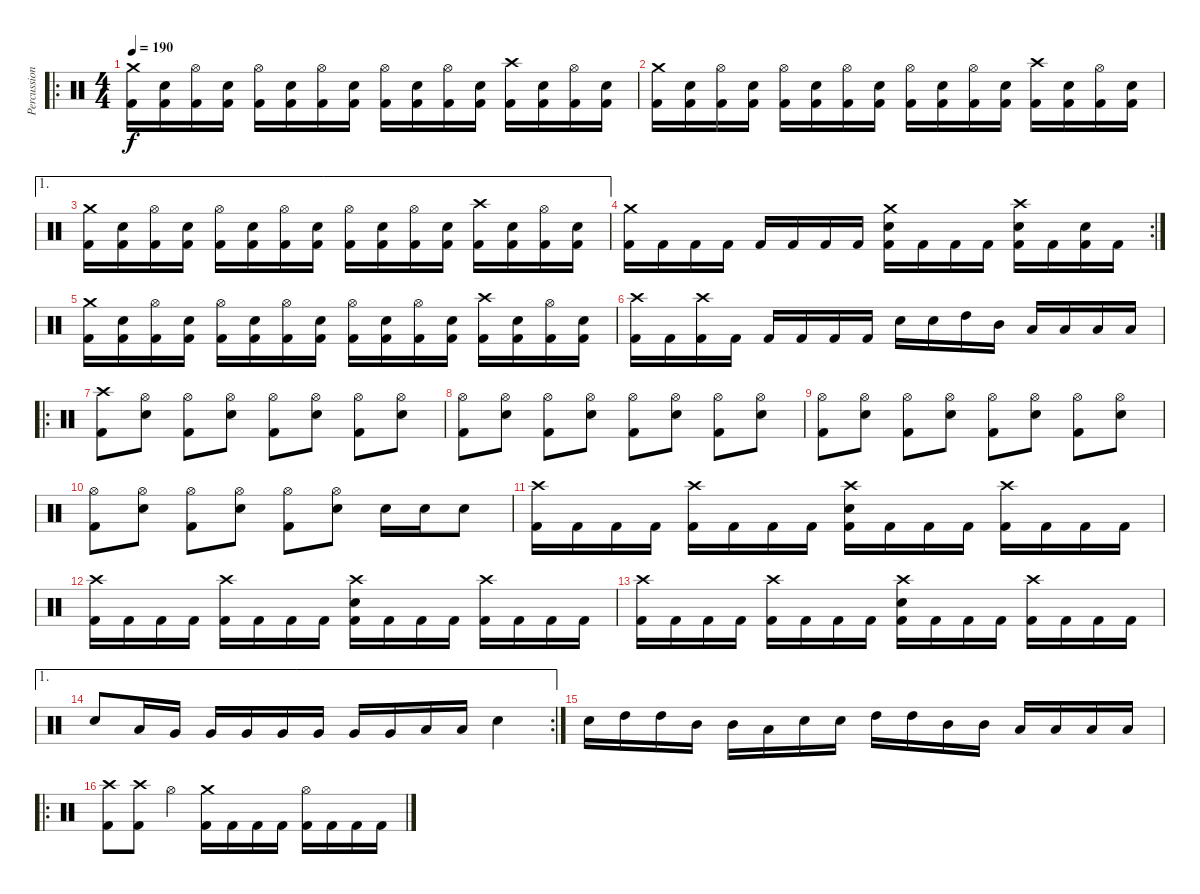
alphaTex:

\track ("Percussion" "Percussion") {instrument percussion}
\staff {score}
\articulation defaults
\ro
\ts (4 4)
\tempo 190
\clef neutral
\ks c
("Crash medium (hit)" "Kick (hit) 2").16{dy f} ("Snare (hit) 2" "Kick (hit) 2").16 ("Hi-Hat (open)" "Kick (hit) 2").16 ("Snare (hit) 2" "Kick (hit) 2").16 ("Hi-Hat (open)" "Kick (hit) 2").16 ("Snare (hit) 2" "Kick (hit) 2").16 ("Hi-Hat (open)" "Kick (hit) 2").16 ("Snare (hit) 2" "Kick (hit) 2").16 ("Hi-Hat (open)" "Kick (hit) 2").16 ("Snare (hit) 2" "Kick (hit) 2").16 ("Hi-Hat (open)" "Kick (hit) 2").16 ("Snare (hit) 2" "Kick (hit) 2").16 ("Crash high (hit)" "Kick (hit) 2").16 ("Snare (hit) 2" "Kick (hit) 2").16 ("Hi-Hat (open)" "Kick (hit) 2").16 ("Snare (hit) 2" "Kick (hit) 2").16 |
("Crash medium (hit)" "Kick (hit) 2").16 ("Snare (hit) 2" "Kick (hit) 2").16 ("Hi-Hat (open)" "Kick (hit) 2").16 ("Snare (hit) 2" "Kick (hit) 2").16 ("Hi-Hat (open)" "Kick (hit) 2").16 ("Snare (hit) 2" "Kick (hit) 2").16 ("Hi-Hat (open)" "Kick (hit) 2").16 ("Snare (hit) 2" "Kick (hit) 2").16 ("Hi-Hat (open)" "Kick (hit) 2").16 ("Snare (hit) 2" "Kick (hit) 2").16 ("Hi-Hat (open)" "Kick (hit) 2").16 ("Snare (hit) 2" "Kick (hit) 2").16 ("Crash high (hit)" "Kick (hit) 2").16 ("Snare (hit) 2" "Kick (hit) 2").16 ("Hi-Hat (open)" "Kick (hit) 2").16 ("Snare (hit) 2" "Kick (hit) 2").16 |
\ae 1
("Crash medium (hit)" "Kick (hit) 2").16 ("Snare (hit) 2" "Kick (hit) 2").16 ("Hi-Hat (open)" "Kick (hit) 2").16 ("Snare (hit) 2" "Kick (hit) 2").16 ("Hi-Hat (open)" "Kick (hit) 2").16 ("Snare (hit) 2" "Kick (hit) 2").16 ("Hi-Hat (open)" "Kick (hit) 2").16 ("Snare (hit) 2" "Kick (hit) 2").16 ("Hi-Hat (open)" "Kick (hit) 2").16 ("Snare (hit) 2" "Kick (hit) 2").16 ("Hi-Hat (open)" "Kick (hit) 2").16 ("Snare (hit) 2" "Kick (hit) 2").16 ("Crash high (hit)" "Kick (hit) 2").16 ("Snare (hit) 2" "Kick (hit) 2").16 ("Hi-Hat (open)" "Kick (hit) 2").16 ("Snare (hit) 2" "Kick (hit) 2").16 |
\rc 2
("Crash medium (hit)" "Kick (hit) 2").16 "Kick (hit) 2".16 "Kick (hit) 2".16 "Kick (hit) 2".16 "Kick (hit) 2".16 "Kick (hit) 2".16 "Kick (hit) 2".16 "Kick (hit) 2".16 ("Crash medium (hit)" "Snare (hit) 2" "Kick (hit) 2").16 "Kick (hit) 2".16 "Kick (hit) 2".16 "Kick (hit) 2".16 ("Crash high (hit)" "Snare (hit) 2" "Kick (hit) 2").16 "Kick (hit) 2".16 ("Snare (hit) 2" "Kick (hit) 2").16 "Kick (hit) 2".16 |
("Crash medium (hit)" "Kick (hit) 2").16 ("Snare (hit) 2" "Kick (hit) 2").16 ("Hi-Hat (open)" "Kick (hit) 2").16 ("Snare (hit) 2" "Kick (hit) 2").16 ("Hi-Hat (open)" "Kick (hit) 2").16 ("Snare (hit) 2" "Kick (hit) 2").16 ("Hi-Hat (open)" "Kick (hit) 2").16 ("Snare (hit) 2" "Kick (hit) 2").16 ("Hi-Hat (open)" "Kick (hit) 2").16 ("Snare (hit) 2" "Kick (hit) 2").16 ("Hi-Hat (open)" "Kick (hit) 2").16 ("Snare (hit) 2" "Kick (hit) 2").16 ("Crash high (hit)" "Kick (hit) 2").16 ("Snare (hit) 2" "Kick (hit) 2").16 ("Hi-Hat (open)" "Kick (hit) 2").16 ("Snare (hit) 2" "Kick (hit) 2").16 |
("Crash high (hit)" "Kick (hit) 2").16 "Kick (hit) 2".16 ("Crash high (hit)" "Kick (hit) 2").16 "Kick (hit) 2".16 "Kick (hit) 2".16 "Kick (hit) 2".16 "Kick (hit) 2".16 "Kick (hit) 2".16 "Snare (hit) 2".16 "Snare (hit) 2".16 "High Tom (hit)".16 "Mid Tom (hit)".16 "Low Tom (hit)".16 "Low Tom (hit)".16 "Low Tom (hit)".16 "Low Tom (hit)".16 |
\ro
("Crash high (hit)" "Kick (hit) 2").8 ("Hi-Hat (open)" "Snare (hit) 2").8 ("Hi-Hat (open)" "Kick (hit) 2").8 ("Hi-Hat (open)" "Snare (hit) 2").8 ("Hi-Hat (open)" "Kick (hit) 2").8 ("Hi-Hat (open)" "Snare (hit) 2").8 ("Hi-Hat (open)" "Kick (hit) 2").8 ("Hi-Hat (open)" "Snare (hit) 2").8 |
("Hi-Hat (open)" "Kick (hit) 2").8 ("Hi-Hat (open)" "Snare (hit) 2").8 ("Hi-Hat (open)" "Kick (hit) 2").8 ("Hi-Hat (open)" "Snare (hit) 2").8 ("Hi-Hat (open)" "Kick (hit) 2").8 ("Hi-Hat (open)" "Snare (hit) 2").8 ("Hi-Hat (open)" "Kick (hit) 2").8 ("Hi-Hat (open)" "Snare (hit) 2").8 |
("Hi-Hat (open)" "Kick (hit) 2").8 ("Hi-Hat (open)" "Snare (hit) 2").8 ("Hi-Hat (open)" "Kick (hit) 2").8 ("Hi-Hat (open)" "Snare (hit) 2").8 ("Hi-Hat (open)" "Kick (hit) 2").8 ("Hi-Hat (open)" "Snare (hit) 2").8 ("Hi-Hat (open)" "Kick (hit) 2").8 ("Hi-Hat (open)" "Snare (hit) 2").8 |
("Hi-Hat (open)" "Kick (hit) 2").8 ("Hi-Hat (open)" "Snare (hit) 2").8 ("Hi-Hat (open)" "Kick (hit) 2").8 ("Hi-Hat (open)" "Snare (hit) 2").8 ("Hi-Hat (open)" "Kick (hit) 2").8 ("Hi-Hat (open)" "Snare (hit) 2").8 "Snare (hit) 2".16 "Snare (hit) 2".16 "Snare (hit) 2".8 |
("Crash high (hit)" "Kick (hit) 2").16 "Kick (hit) 2".16 "Kick (hit) 2".16 "Kick (hit) 2".16 ("Crash high (hit)" "Kick (hit) 2").16 "Kick (hit) 2".16 "Kick (hit) 2".16 "Kick (hit) 2".16 ("Crash high (hit)" "Snare (hit) 2" "Kick (hit) 2").16 "Kick (hit) 2".16 "Kick (hit) 2".16 "Kick (hit) 2".16 ("Crash high (hit)" "Kick (hit) 2").16 "Kick (hit) 2".16 "Kick (hit) 2".16 "Kick (hit) 2".16 |
("Crash high (hit)" "Kick (hit) 2").16 "Kick (hit) 2".16 "Kick (hit) 2".16 "Kick (hit) 2".16 ("Crash high (hit)" "Kick (hit) 2").16 "Kick (hit) 2".16 "Kick (hit) 2".16 "Kick (hit) 2".16 ("Crash high (hit)" "Snare (hit) 2" "Kick (hit) 2").16 "Kick (hit) 2".16 "Kick (hit) 2".16 "Kick (hit) 2".16 ("Crash high (hit)" "Kick (hit) 2").16 "Kick (hit) 2".16 "Kick (hit) 2".16 "Kick (hit) 2".16 |
("Crash high (hit)" "Kick (hit) 2").16 "Kick (hit) 2".16 "Kick (hit) 2".16 "Kick (hit) 2".16 ("Crash high (hit)" "Kick (hit) 2").16 "Kick (hit) 2".16 "Kick (hit) 2".16 "Kick (hit) 2".16 ("Crash high (hit)" "Snare (hit) 2" "Kick (hit) 2").16 "Kick (hit) 2".16 "Kick (hit) 2".16 "Kick (hit) 2".16 ("Crash high (hit)" "Kick (hit) 2").16 "Kick (hit) 2".16 "Kick (hit) 2".16 "Kick (hit) 2".16 |
\ae 1
\rc 2 "Snare (hit) 2".8 "Low Tom (hit)".16 "Very Low Tom (hit)".16 "Very Low Tom (hit)".16 "Very Low Tom (hit)".16 "Very Low Tom (hit)".16 "Very Low Tom (hit)".16 "Very Low Tom (hit)".16 "Very Low Tom (hit)".16 "Low Tom (hit)".16 "Low Tom (hit)".16 "Snare (hit) 2".4
|
"Snare (hit) 2".16 "High Tom (hit)".16 "High Tom (hit)".16 "Mid Tom (hit)".16 "Mid Tom (hit)".16 "Low Tom (hit)".16 "Snare (hit) 2".16 "Snare (hit) 2".16 "High Tom (hit)".16 "High Tom (hit)".16 "Mid Tom (hit)".16 "Mid Tom (hit)".16 "Low Tom (hit)".16 "Low Tom (hit)".16 "Low Tom (hit)".16 "Low Tom (hit)".16 |
\ro
("Crash high (hit)" "Kick (hit) 2").8 ("Crash high (hit)" "Kick (hit) 2").8 "Hi-Hat (open)".4 ("Crash medium (hit)" "Kick (hit) 2").16 "Kick (hit) 2".16 "Kick (hit) 2".16 "Kick (hit) 2".16 ("Hi-Hat (open)" "Kick (hit) 2").16 "Kick (hit) 2".16 "Kick (hit) 2".16 "Kick (hit) 2".16
